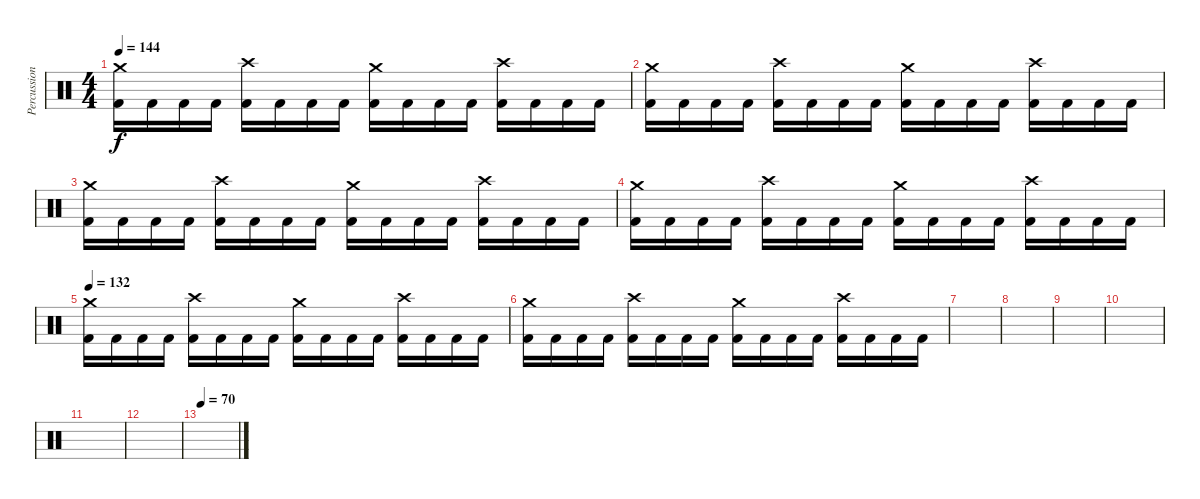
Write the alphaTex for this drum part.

\track ("Percussion" "Percussion") {instrument percussion}
\staff {score}
\articulation defaults
\ts (4 4)
\tempo 144
\clef neutral
\ks c
("Crash medium (hit)" "Kick (hit) 2").16{dy f} "Kick (hit) 2".16 "Kick (hit) 2".16 "Kick (hit) 2".16 ("Crash high (hit)" "Kick (hit) 2").16 "Kick (hit) 2".16 "Kick (hit) 2".16 "Kick (hit) 2".16 ("Crash medium (hit)" "Kick (hit) 2").16 "Kick (hit) 2".16 "Kick (hit) 2".16 "Kick (hit) 2".16 ("Crash high (hit)" "Kick (hit) 2").16 "Kick (hit) 2".16 "Kick (hit) 2".16 "Kick (hit) 2".16 |
("Crash medium (hit)" "Kick (hit) 2").16 "Kick (hit) 2".16 "Kick (hit) 2".16 "Kick (hit) 2".16 ("Crash high (hit)" "Kick (hit) 2").16 "Kick (hit) 2".16 "Kick (hit) 2".16 "Kick (hit) 2".16 ("Crash medium (hit)" "Kick (hit) 2").16 "Kick (hit) 2".16 "Kick (hit) 2".16 "Kick (hit) 2".16 ("Crash high (hit)" "Kick (hit) 2").16 "Kick (hit) 2".16 "Kick (hit) 2".16 "Kick (hit) 2".16 |
("Crash medium (hit)" "Kick (hit) 2").16 "Kick (hit) 2".16 "Kick (hit) 2".16 "Kick (hit) 2".16 ("Crash high (hit)" "Kick (hit) 2").16 "Kick (hit) 2".16 "Kick (hit) 2".16 "Kick (hit) 2".16 ("Crash medium (hit)" "Kick (hit) 2").16 "Kick (hit) 2".16 "Kick (hit) 2".16 "Kick (hit) 2".16 ("Crash high (hit)" "Kick (hit) 2").16 "Kick (hit) 2".16 "Kick (hit) 2".16 "Kick (hit) 2".16 |
("Crash medium (hit)" "Kick (hit) 2").16 "Kick (hit) 2".16 "Kick (hit) 2".16 "Kick (hit) 2".16 ("Crash high (hit)" "Kick (hit) 2").16 "Kick (hit) 2".16 "Kick (hit) 2".16 "Kick (hit) 2".16 ("Crash medium (hit)" "Kick (hit) 2").16 "Kick (hit) 2".16 "Kick (hit) 2".16 "Kick (hit) 2".16 ("Crash high (hit)" "Kick (hit) 2").16 "Kick (hit) 2".16 "Kick (hit) 2".16 "Kick (hit) 2".16 |
\tempo 132
("Crash medium (hit)" "Kick (hit) 2").16{volume 0} "Kick (hit) 2".16 "Kick (hit) 2".16 "Kick (hit) 2".16 ("Crash high (hit)" "Kick (hit) 2").16 "Kick (hit) 2".16 "Kick (hit) 2".16 "Kick (hit) 2".16 ("Crash medium (hit)" "Kick (hit) 2").16 "Kick (hit) 2".16 "Kick (hit) 2".16 "Kick (hit) 2".16 ("Crash high (hit)" "Kick (hit) 2").16 "Kick (hit) 2".16 "Kick (hit) 2".16 "Kick (hit) 2".16 |
("Crash medium (hit)" "Kick (hit) 2").16 "Kick (hit) 2".16 "Kick (hit) 2".16 "Kick (hit) 2".16 ("Crash high (hit)" "Kick (hit) 2").16 "Kick (hit) 2".16 "Kick (hit) 2".16 "Kick (hit) 2".16 ("Crash medium (hit)" "Kick (hit) 2").16 "Kick (hit) 2".16 "Kick (hit) 2".16 "Kick (hit) 2".16 ("Crash high (hit)" "Kick (hit) 2").16 "Kick (hit) 2".16 "Kick (hit) 2".16 "Kick (hit) 2".16 |
|
|
|
|
|
|
\tempo 70
